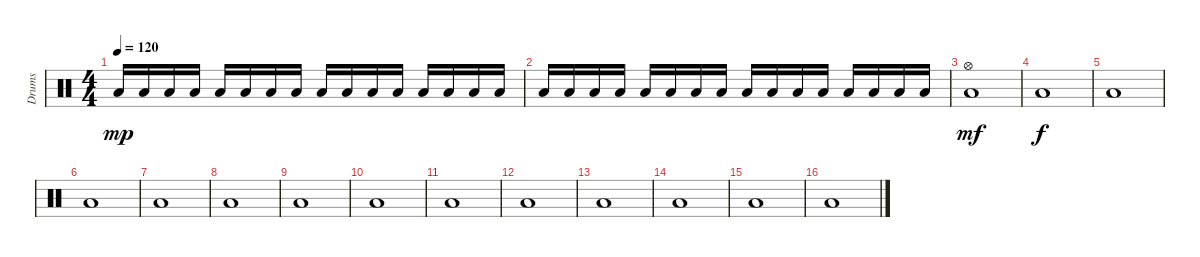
\track ("Drums" "Drums") {instrument percussion}
\staff {score}
\articulation defaults
\ts (4 4)
\tempo 120
\clef neutral
\ks c "Low Floor Tom (hit)".16{dy mp} "Low Floor Tom (hit)".16 "Low Floor Tom (hit)".16 "Low Floor Tom (hit)".16 "Low Floor Tom (hit)".16 "Low Floor Tom (hit)".16 "Low Floor Tom (hit)".16 "Low Floor Tom (hit)".16 "Low Floor Tom (hit)".16 "Low Floor Tom (hit)".16 "Low Floor Tom (hit)".16 "Low Floor Tom (hit)".16 "Low Floor Tom (hit)".16 "Low Floor Tom (hit)".16 "Low Floor Tom (hit)".16 "Low Floor Tom (hit)".16
|
"Low Floor Tom (hit)".16 "Low Floor Tom (hit)".16 "Low Floor Tom (hit)".16 "Low Floor Tom (hit)".16 "Low Floor Tom (hit)".16 "Low Floor Tom (hit)".16 "Low Floor Tom (hit)".16 "Low Floor Tom (hit)".16 "Low Floor Tom (hit)".16 "Low Floor Tom (hit)".16 "Low Floor Tom (hit)".16 "Low Floor Tom (hit)".16 "Low Floor Tom (hit)".16 "Low Floor Tom (hit)".16 "Low Floor Tom (hit)".16 "Low Floor Tom (hit)".16 |
("Low Floor Tom (hit)" "Hi-Hat (open)").1{dy mf} |
"Low Floor Tom (hit)".1{dy f} |
"Low Floor Tom (hit)".1 |
"Low Floor Tom (hit)".1 |
"Low Floor Tom (hit)".1 |
"Low Floor Tom (hit)".1 |
"Low Floor Tom (hit)".1 |
"Low Floor Tom (hit)".1 |
"Low Floor Tom (hit)".1 |
"Low Floor Tom (hit)".1 |
"Low Floor Tom (hit)".1 |
"Low Floor Tom (hit)".1 |
"Low Floor Tom (hit)".1 |
"Low Floor Tom (hit)".1
